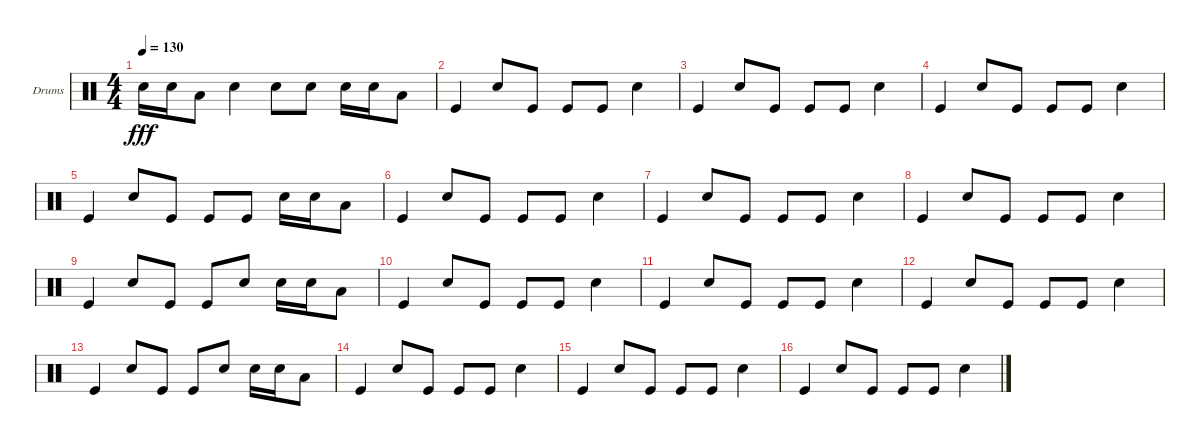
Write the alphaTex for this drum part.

\defaultSystemsLayout 4
\bracketExtendMode groupsimilarinstruments
\firstSystemTrackNameOrientation horizontal
\otherSystemsTrackNameOrientation horizontal
\track ("Helders" "Drums") {instrument percussion}
\staff {score}
\articulation defaults
\ts (4 4)
\tempo 130
\clef neutral
\ks c "Snare (hit) 2".16{dy fff} "Snare (hit) 2".16 "Low Tom (hit)".8 "Snare (hit) 2".4 "Snare (hit) 2".8 "Snare (hit) 2".8 "Snare (hit) 2".16 "Snare (hit) 2".16 "Low Tom (hit)".8
|
"Kick (hit)".4 "Snare (hit) 2".8 "Kick (hit)".8 "Kick (hit)".8 "Kick (hit)".8 "Snare (hit) 2".4 |
"Kick (hit)".4 "Snare (hit) 2".8 "Kick (hit)".8 "Kick (hit)".8 "Kick (hit)".8 "Snare (hit) 2".4 |
"Kick (hit)".4 "Snare (hit) 2".8 "Kick (hit)".8 "Kick (hit)".8 "Kick (hit)".8 "Snare (hit) 2".4 |
"Kick (hit)".4 "Snare (hit) 2".8 "Kick (hit)".8 "Kick (hit)".8 "Kick (hit)".8 "Snare (hit) 2".16 "Snare (hit) 2".16 "Low Tom (hit)".8 |
"Kick (hit)".4 "Snare (hit) 2".8 "Kick (hit)".8 "Kick (hit)".8 "Kick (hit)".8 "Snare (hit) 2".4 |
"Kick (hit)".4 "Snare (hit) 2".8 "Kick (hit)".8 "Kick (hit)".8 "Kick (hit)".8 "Snare (hit) 2".4 |
"Kick (hit)".4 "Snare (hit) 2".8 "Kick (hit)".8 "Kick (hit)".8 "Kick (hit)".8 "Snare (hit) 2".4 |
"Kick (hit)".4 "Snare (hit) 2".8 "Kick (hit)".8 "Kick (hit)".8 "Snare (hit) 2".8 "Snare (hit) 2".16 "Snare (hit) 2".16 "Low Tom (hit)".8 |
"Kick (hit)".4 "Snare (hit) 2".8 "Kick (hit)".8 "Kick (hit)".8 "Kick (hit)".8 "Snare (hit) 2".4 |
"Kick (hit)".4 "Snare (hit) 2".8 "Kick (hit)".8 "Kick (hit)".8 "Kick (hit)".8 "Snare (hit) 2".4 |
"Kick (hit)".4 "Snare (hit) 2".8 "Kick (hit)".8 "Kick (hit)".8 "Kick (hit)".8 "Snare (hit) 2".4 |
"Kick (hit)".4 "Snare (hit) 2".8 "Kick (hit)".8 "Kick (hit)".8 "Snare (hit) 2".8 "Snare (hit) 2".16 "Snare (hit) 2".16 "Low Tom (hit)".8 |
"Kick (hit)".4 "Snare (hit) 2".8 "Kick (hit)".8 "Kick (hit)".8 "Kick (hit)".8 "Snare (hit) 2".4 |
"Kick (hit)".4 "Snare (hit) 2".8 "Kick (hit)".8 "Kick (hit)".8 "Kick (hit)".8 "Snare (hit) 2".4 |
"Kick (hit)".4 "Snare (hit) 2".8 "Kick (hit)".8 "Kick (hit)".8 "Kick (hit)".8 "Snare (hit) 2".4
